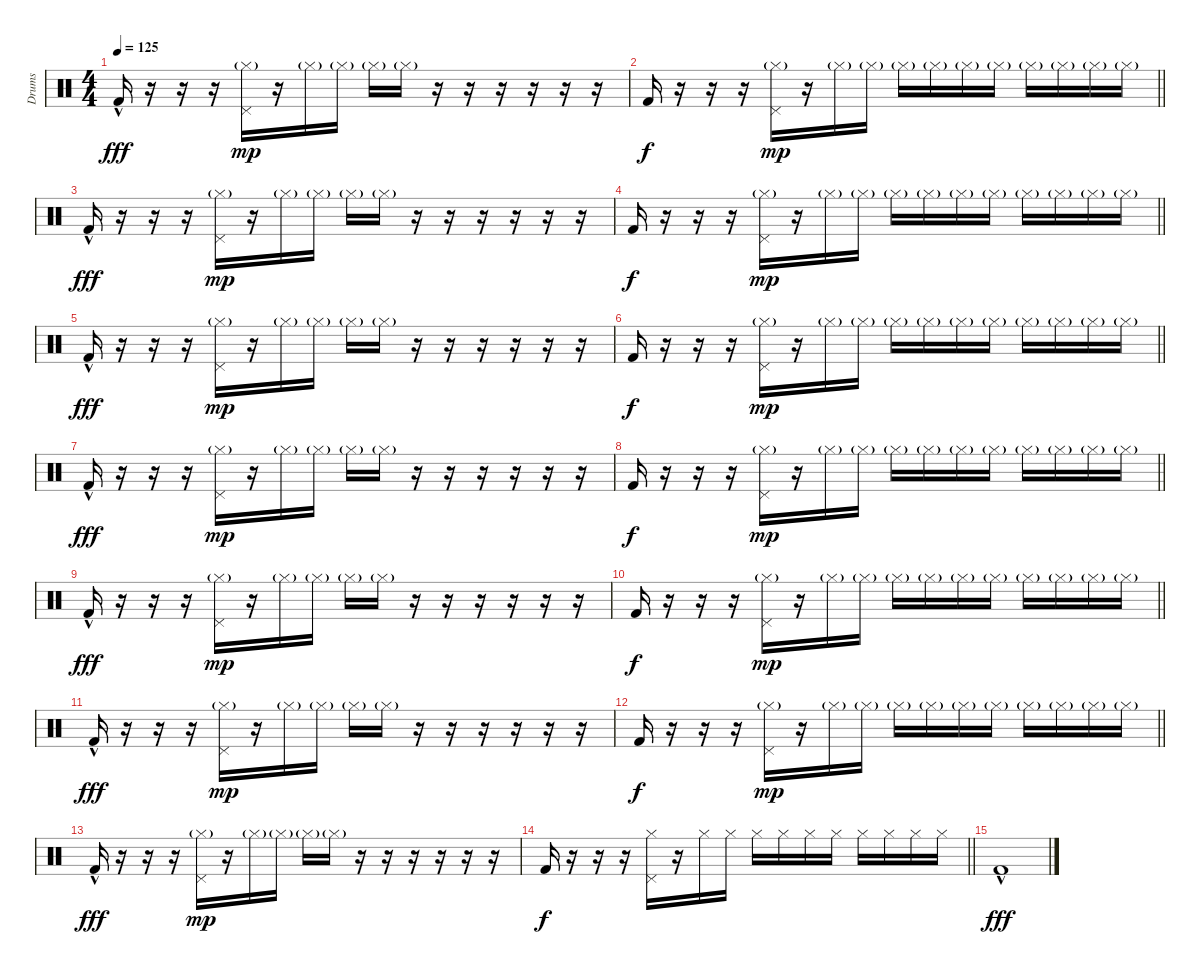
\track ("Drums" "Drums") {instrument percussion}
\staff {score}
\articulation defaults
\ts (4 4)
\tempo 125
\clef neutral
\ks c "Kick (hit) 2"{hac}.16{dy fff volume 16}
r.16{volume 10} r.16 r.16 ("Hi-Hat (closed)"{g} "Pedal Hi-Hat (hit)").16{dy mp} r.16 "Hi-Hat (closed)"{g}.16 "Hi-Hat (closed)"{g}.16 "Hi-Hat (closed)"{g}.16 "Hi-Hat (closed)"{g}.16 r.16 r.16 r.16 r.16 r.16 r.16 |
\barLineRight lightlight "Kick (hit) 2".16{dy f volume 8}
r.16 r.16 r.16 ("Hi-Hat (closed)"{g} "Pedal Hi-Hat (hit)").16{dy mp} r.16 "Hi-Hat (closed)"{g}.16 "Hi-Hat (closed)"{g}.16 "Hi-Hat (closed)"{g}.16 "Hi-Hat (closed)"{g}.16 "Hi-Hat (closed)"{g}.16 "Hi-Hat (closed)"{g}.16 "Hi-Hat (closed)"{g}.16 "Hi-Hat (closed)"{g}.16 "Hi-Hat (closed)"{g}.16 "Hi-Hat (closed)"{g}.16 |
"Kick (hit) 2"{hac}.16{dy fff volume 16} r.16{volume 10} r.16 r.16 ("Hi-Hat (closed)"{g} "Pedal Hi-Hat (hit)").16{dy mp} r.16 "Hi-Hat (closed)"{g}.16 "Hi-Hat (closed)"{g}.16 "Hi-Hat (closed)"{g}.16 "Hi-Hat (closed)"{g}.16 r.16 r.16 r.16 r.16 r.16 r.16 |
\barLineRight lightlight "Kick (hit) 2".16{dy f volume 8}
r.16 r.16 r.16 ("Hi-Hat (closed)"{g} "Pedal Hi-Hat (hit)").16{dy mp} r.16 "Hi-Hat (closed)"{g}.16 "Hi-Hat (closed)"{g}.16 "Hi-Hat (closed)"{g}.16 "Hi-Hat (closed)"{g}.16 "Hi-Hat (closed)"{g}.16 "Hi-Hat (closed)"{g}.16 "Hi-Hat (closed)"{g}.16 "Hi-Hat (closed)"{g}.16 "Hi-Hat (closed)"{g}.16 "Hi-Hat (closed)"{g}.16 |
"Kick (hit) 2"{hac}.16{dy fff volume 16} r.16{volume 10} r.16 r.16 ("Hi-Hat (closed)"{g} "Pedal Hi-Hat (hit)").16{dy mp} r.16 "Hi-Hat (closed)"{g}.16 "Hi-Hat (closed)"{g}.16 "Hi-Hat (closed)"{g}.16 "Hi-Hat (closed)"{g}.16 r.16 r.16 r.16 r.16 r.16 r.16 |
\barLineRight lightlight "Kick (hit) 2".16{dy f volume 8}
r.16 r.16 r.16 ("Hi-Hat (closed)"{g} "Pedal Hi-Hat (hit)").16{dy mp} r.16 "Hi-Hat (closed)"{g}.16 "Hi-Hat (closed)"{g}.16 "Hi-Hat (closed)"{g}.16 "Hi-Hat (closed)"{g}.16 "Hi-Hat (closed)"{g}.16 "Hi-Hat (closed)"{g}.16 "Hi-Hat (closed)"{g}.16 "Hi-Hat (closed)"{g}.16 "Hi-Hat (closed)"{g}.16 "Hi-Hat (closed)"{g}.16 |
"Kick (hit) 2"{hac}.16{dy fff volume 16} r.16{volume 10} r.16 r.16 ("Hi-Hat (closed)"{g} "Pedal Hi-Hat (hit)").16{dy mp} r.16 "Hi-Hat (closed)"{g}.16 "Hi-Hat (closed)"{g}.16 "Hi-Hat (closed)"{g}.16 "Hi-Hat (closed)"{g}.16 r.16 r.16 r.16 r.16 r.16 r.16 |
\barLineRight lightlight "Kick (hit) 2".16{dy f volume 8}
r.16 r.16 r.16 ("Hi-Hat (closed)"{g} "Pedal Hi-Hat (hit)").16{dy mp} r.16 "Hi-Hat (closed)"{g}.16 "Hi-Hat (closed)"{g}.16 "Hi-Hat (closed)"{g}.16 "Hi-Hat (closed)"{g}.16 "Hi-Hat (closed)"{g}.16 "Hi-Hat (closed)"{g}.16 "Hi-Hat (closed)"{g}.16 "Hi-Hat (closed)"{g}.16 "Hi-Hat (closed)"{g}.16 "Hi-Hat (closed)"{g}.16 |
"Kick (hit) 2"{hac}.16{dy fff volume 16} r.16{volume 10} r.16 r.16 ("Hi-Hat (closed)"{g} "Pedal Hi-Hat (hit)").16{dy mp} r.16 "Hi-Hat (closed)"{g}.16 "Hi-Hat (closed)"{g}.16 "Hi-Hat (closed)"{g}.16 "Hi-Hat (closed)"{g}.16 r.16 r.16 r.16 r.16 r.16 r.16 |
\barLineRight lightlight "Kick (hit) 2".16{dy f volume 8}
r.16 r.16 r.16 ("Hi-Hat (closed)"{g} "Pedal Hi-Hat (hit)").16{dy mp} r.16 "Hi-Hat (closed)"{g}.16 "Hi-Hat (closed)"{g}.16 "Hi-Hat (closed)"{g}.16 "Hi-Hat (closed)"{g}.16 "Hi-Hat (closed)"{g}.16 "Hi-Hat (closed)"{g}.16 "Hi-Hat (closed)"{g}.16 "Hi-Hat (closed)"{g}.16 "Hi-Hat (closed)"{g}.16 "Hi-Hat (closed)"{g}.16 |
"Kick (hit) 2"{hac}.16{dy fff volume 16} r.16{volume 10} r.16 r.16 ("Hi-Hat (closed)"{g} "Pedal Hi-Hat (hit)").16{dy mp} r.16 "Hi-Hat (closed)"{g}.16 "Hi-Hat (closed)"{g}.16 "Hi-Hat (closed)"{g}.16 "Hi-Hat (closed)"{g}.16 r.16 r.16 r.16 r.16 r.16 r.16 |
\barLineRight lightlight "Kick (hit) 2".16{dy f volume 8}
r.16 r.16 r.16 ("Hi-Hat (closed)"{g} "Pedal Hi-Hat (hit)").16{dy mp} r.16 "Hi-Hat (closed)"{g}.16 "Hi-Hat (closed)"{g}.16 "Hi-Hat (closed)"{g}.16 "Hi-Hat (closed)"{g}.16 "Hi-Hat (closed)"{g}.16 "Hi-Hat (closed)"{g}.16 "Hi-Hat (closed)"{g}.16 "Hi-Hat (closed)"{g}.16 "Hi-Hat (closed)"{g}.16 "Hi-Hat (closed)"{g}.16 |
"Kick (hit) 2"{hac}.16{dy fff volume 16} r.16{volume 10} r.16 r.16 ("Hi-Hat (closed)"{g} "Pedal Hi-Hat (hit)").16{dy mp} r.16 "Hi-Hat (closed)"{g}.16 "Hi-Hat (closed)"{g}.16 "Hi-Hat (closed)"{g}.16 "Hi-Hat (closed)"{g}.16 r.16 r.16 r.16 r.16 r.16 r.16 |
\barLineRight lightlight "Kick (hit) 2".16{dy f volume 8}
r.16 r.16 r.16 ("Hi-Hat (closed)" "Pedal Hi-Hat (hit)").16 r.16 "Hi-Hat (closed)".16 "Hi-Hat (closed)".16 "Hi-Hat (closed)".16 "Hi-Hat (closed)".16 "Hi-Hat (closed)".16 "Hi-Hat (closed)".16 "Hi-Hat (closed)".16 "Hi-Hat (closed)".16 "Hi-Hat (closed)".16 "Hi-Hat (closed)".16 |
"Kick (hit) 2"{hac}.1{dy fff volume 16}
